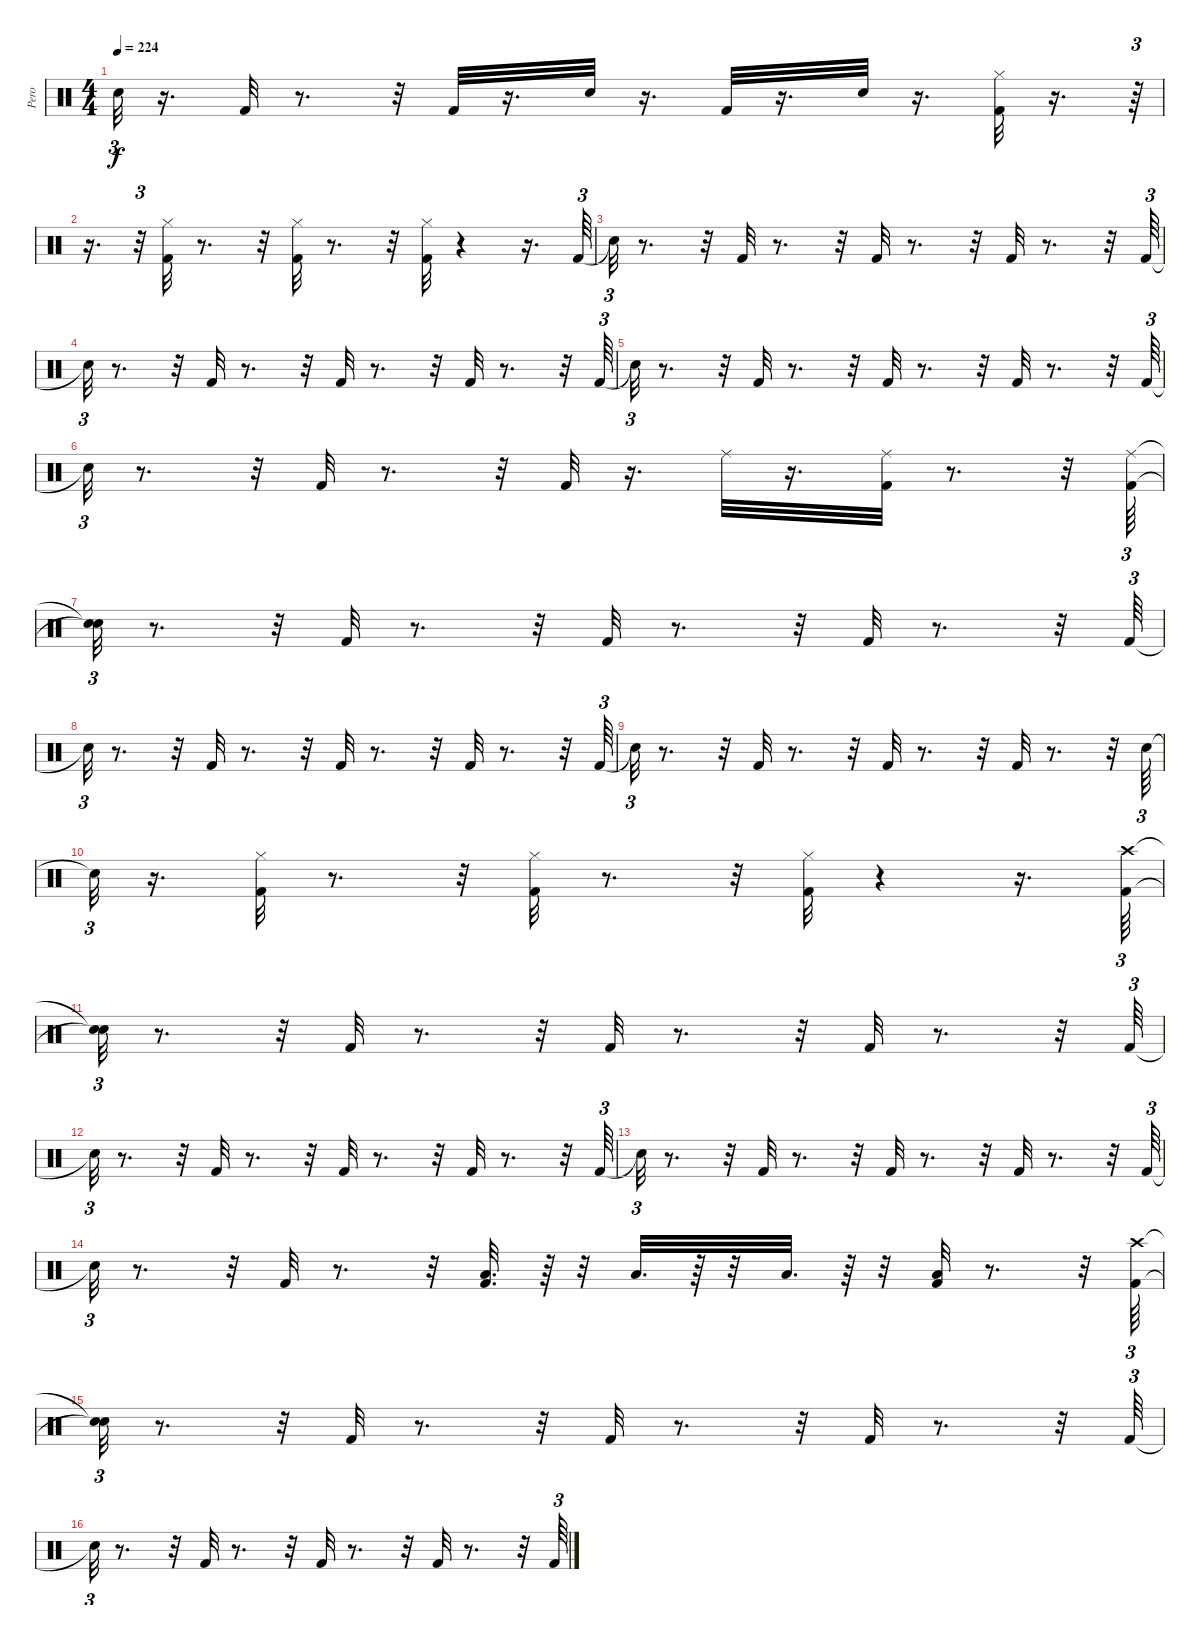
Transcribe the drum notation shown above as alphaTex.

\track ("Pero" "Pero") {instrument percussion}
\staff {score}
\articulation defaults
\ts (4 4)
\tempo 224
\clef neutral
\ks c "Snare (hit)"{t}.32{tu (3 2) dy f}
r.16{d} "Kick (hit) 2".32 r.8{d} r.32 "Kick (hit) 2".32 r.16{d} "Snare (hit) 2".32 r.16{d} "Kick (hit) 2".32 r.16{d} "Snare (hit) 2".32 r.16{d} ("Kick (hit) 2" "Hi-Hat (closed)").32 r.16{d} r.64{tu (3 2)} |
r.16{d} r.32{tu (3 2)} ("Kick (hit) 2" "Hi-Hat (closed)").32 r.8{d} r.32 ("Kick (hit) 2" "Hi-Hat (closed)").32 r.8{d} r.32 ("Kick (hit) 2" "Hi-Hat (closed)").32 r.4 r.16{d} "Kick (hit) 2".64{tu (3 2)} |
"Snare (hit)"{t}.32{tu (3 2)} r.8{d} r.32 "Kick (hit) 2".32 r.8{d} r.32 "Kick (hit) 2".32 r.8{d} r.32 "Kick (hit) 2".32 r.8{d} r.32 "Kick (hit) 2".64{tu (3 2)} |
"Snare (hit)"{t}.32{tu (3 2)} r.8{d} r.32 "Kick (hit) 2".32 r.8{d} r.32 "Kick (hit) 2".32 r.8{d} r.32 "Kick (hit) 2".32 r.8{d} r.32 "Kick (hit) 2".64{tu (3 2)} |
"Snare (hit)"{t}.32{tu (3 2)} r.8{d} r.32 "Kick (hit) 2".32 r.8{d} r.32 "Kick (hit) 2".32 r.8{d} r.32 "Kick (hit) 2".32 r.8{d} r.32 "Kick (hit) 2".64{tu (3 2)} |
"Snare (hit)"{t}.32{tu (3 2)} r.8{d} r.32 "Kick (hit) 2".32 r.8{d} r.32 "Kick (hit) 2".32 r.16{d} "Ride (middle)".32 r.16{d} ("Kick (hit) 2" "Ride (middle)").32 r.8{d} r.32 ("Kick (hit) 2" "Ride (middle)").64{tu (3 2)} |
("Snare (hit)"{t} "Snare (hit)"{t}).32{tu (3 2)} r.8{d} r.32 "Kick (hit) 2".32 r.8{d} r.32 "Kick (hit) 2".32 r.8{d} r.32 "Kick (hit) 2".32 r.8{d} r.32 "Kick (hit) 2".64{tu (3 2)} |
"Snare (hit)"{t}.32{tu (3 2)} r.8{d} r.32 "Kick (hit) 2".32 r.8{d} r.32 "Kick (hit) 2".32 r.8{d} r.32 "Kick (hit) 2".32 r.8{d} r.32 "Kick (hit) 2".64{tu (3 2)} |
"Snare (hit)"{t}.32{tu (3 2)} r.8{d} r.32 "Kick (hit) 2".32 r.8{d} r.32 "Kick (hit) 2".32 r.8{d} r.32 "Kick (hit) 2".32 r.8{d} r.32 "Snare (hit) 2".64{tu (3 2)} |
"Snare (hit)"{t}.32{tu (3 2)} r.16{d} ("Hi-Hat (closed)" "Kick (hit) 2").32 r.8{d} r.32 ("Hi-Hat (closed)" "Kick (hit) 2").32 r.8{d} r.32 ("Hi-Hat (closed)" "Kick (hit) 2").32 r.4 r.16{d} ("Crash high (hit)" "Kick (hit) 2").64{tu (3 2)} |
("Snare (hit)"{t} "Snare (hit)"{t}).32{tu (3 2)} r.8{d} r.32 "Kick (hit) 2".32 r.8{d} r.32 "Kick (hit) 2".32 r.8{d} r.32 "Kick (hit) 2".32 r.8{d} r.32 "Kick (hit) 2".64{tu (3 2)} |
"Snare (hit)"{t}.32{tu (3 2)} r.8{d} r.32 "Kick (hit) 2".32 r.8{d} r.32 "Kick (hit) 2".32 r.8{d} r.32 "Kick (hit) 2".32 r.8{d} r.32 "Kick (hit) 2".64{tu (3 2)} |
"Snare (hit)"{t}.32{tu (3 2)} r.8{d} r.32 "Kick (hit) 2".32 r.8{d} r.32 "Kick (hit) 2".32 r.8{d} r.32 "Kick (hit) 2".32 r.8{d} r.32 "Kick (hit) 2".64{tu (3 2)} |
"Snare (hit)"{t}.32{tu (3 2)} r.8{d} r.32 "Kick (hit) 2".32 r.8{d} r.32 ("Kick (hit) 2" "Low Tom (hit)").32{d} r.64 r.32 "Low Tom (hit)".32{d} r.64 r.32 "Low Tom (hit)".32{d} r.64 r.32 ("Kick (hit) 2" "Low Tom (hit)").32 r.8{d} r.32 ("Kick (hit) 2" "Crash high (hit)").64{tu (3 2)} |
("Snare (hit)"{t} "Snare (hit)"{t}).32{tu (3 2)} r.8{d} r.32 "Kick (hit) 2".32 r.8{d} r.32 "Kick (hit) 2".32 r.8{d} r.32 "Kick (hit) 2".32 r.8{d} r.32 "Kick (hit) 2".64{tu (3 2)} |
"Snare (hit)"{t}.32{tu (3 2)} r.8{d} r.32 "Kick (hit) 2".32 r.8{d} r.32 "Kick (hit) 2".32 r.8{d} r.32 "Kick (hit) 2".32 r.8{d} r.32 "Kick (hit) 2".64{tu (3 2)}
